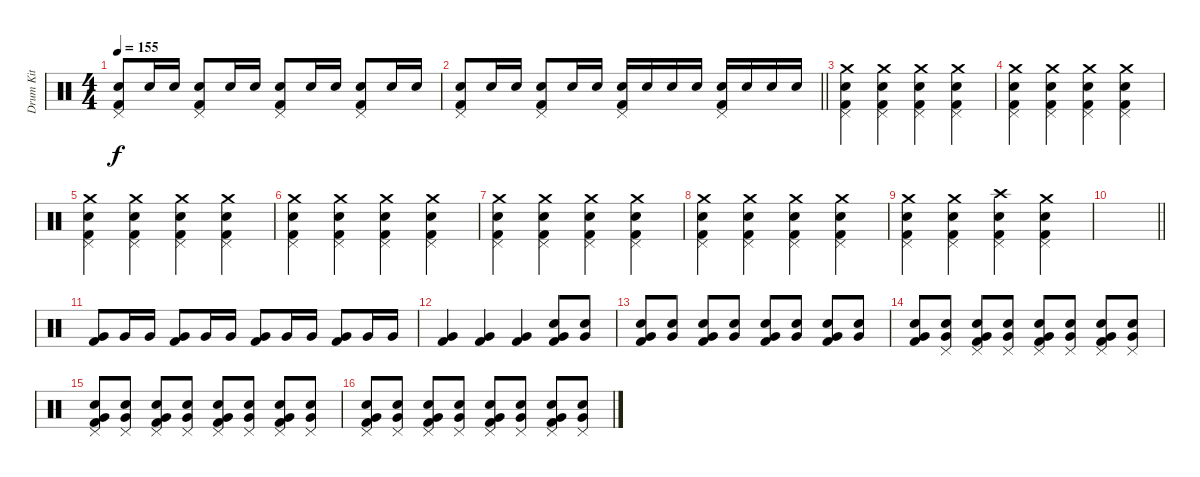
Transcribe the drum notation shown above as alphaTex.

\track ("Drum Kit" "Drum Kit") {instrument percussion}
\staff {score}
\articulation defaults
\ts (4 4)
\tempo 155
\clef neutral
\ks c
("Pedal Hi-Hat (hit)" "Snare (hit) 2" "Kick (hit) 2").8{dy f} "Snare (hit) 2".16 "Snare (hit) 2".16 ("Pedal Hi-Hat (hit)" "Snare (hit) 2" "Kick (hit) 2").8 "Snare (hit) 2".16 "Snare (hit) 2".16 ("Pedal Hi-Hat (hit)" "Snare (hit) 2" "Kick (hit) 2").8 "Snare (hit) 2".16 "Snare (hit) 2".16 ("Pedal Hi-Hat (hit)" "Snare (hit) 2" "Kick (hit) 2").8 "Snare (hit) 2".16 "Snare (hit) 2".16 |
\barLineRight lightlight
("Pedal Hi-Hat (hit)" "Snare (hit) 2" "Kick (hit) 2").8{volume 11} "Snare (hit) 2".16 "Snare (hit) 2".16 ("Pedal Hi-Hat (hit)" "Snare (hit) 2" "Kick (hit) 2").8 "Snare (hit) 2".16 "Snare (hit) 2".16 ("Pedal Hi-Hat (hit)" "Snare (hit) 2" "Kick (hit) 2").16 "Snare (hit) 2".16 "Snare (hit) 2".16 "Snare (hit) 2".16 ("Pedal Hi-Hat (hit)" "Snare (hit) 2" "Kick (hit) 2").16 "Snare (hit) 2".16 "Snare (hit) 2".16 "Snare (hit) 2".16 |
("Crash medium (hit)" "Pedal Hi-Hat (hit)" "Snare (hit) 2" "Kick (hit) 2").4{volume 10} ("Crash medium (hit)" "Pedal Hi-Hat (hit)" "Snare (hit) 2" "Kick (hit) 2").4 ("Crash medium (hit)" "Pedal Hi-Hat (hit)" "Snare (hit) 2" "Kick (hit) 2").4 ("Crash medium (hit)" "Pedal Hi-Hat (hit)" "Snare (hit) 2" "Kick (hit) 2").4 |
("Crash medium (hit)" "Pedal Hi-Hat (hit)" "Snare (hit) 2" "Kick (hit) 2").4 ("Crash medium (hit)" "Pedal Hi-Hat (hit)" "Snare (hit) 2" "Kick (hit) 2").4 ("Crash medium (hit)" "Pedal Hi-Hat (hit)" "Snare (hit) 2" "Kick (hit) 2").4 ("Crash medium (hit)" "Pedal Hi-Hat (hit)" "Snare (hit) 2" "Kick (hit) 2").4 |
("Crash medium (hit)" "Pedal Hi-Hat (hit)" "Snare (hit) 2" "Kick (hit) 2").4 ("Crash medium (hit)" "Pedal Hi-Hat (hit)" "Snare (hit) 2" "Kick (hit) 2").4 ("Crash medium (hit)" "Pedal Hi-Hat (hit)" "Snare (hit) 2" "Kick (hit) 2").4 ("Crash medium (hit)" "Pedal Hi-Hat (hit)" "Snare (hit) 2" "Kick (hit) 2").4 |
("Crash medium (hit)" "Pedal Hi-Hat (hit)" "Snare (hit) 2" "Kick (hit) 2").4 ("Crash medium (hit)" "Pedal Hi-Hat (hit)" "Snare (hit) 2" "Kick (hit) 2").4 ("Crash medium (hit)" "Pedal Hi-Hat (hit)" "Snare (hit) 2" "Kick (hit) 2").4 ("Crash medium (hit)" "Pedal Hi-Hat (hit)" "Snare (hit) 2" "Kick (hit) 2").4 |
("Crash medium (hit)" "Pedal Hi-Hat (hit)" "Snare (hit) 2" "Kick (hit) 2").4 ("Crash medium (hit)" "Pedal Hi-Hat (hit)" "Snare (hit) 2" "Kick (hit) 2").4 ("Crash medium (hit)" "Pedal Hi-Hat (hit)" "Snare (hit) 2" "Kick (hit) 2").4 ("Crash medium (hit)" "Pedal Hi-Hat (hit)" "Snare (hit) 2" "Kick (hit) 2").4 |
("Crash medium (hit)" "Pedal Hi-Hat (hit)" "Snare (hit) 2" "Kick (hit) 2").4 ("Crash medium (hit)" "Pedal Hi-Hat (hit)" "Snare (hit) 2" "Kick (hit) 2").4 ("Crash medium (hit)" "Pedal Hi-Hat (hit)" "Snare (hit) 2" "Kick (hit) 2").4 ("Crash medium (hit)" "Pedal Hi-Hat (hit)" "Snare (hit) 2" "Kick (hit) 2").4 |
("Crash medium (hit)" "Pedal Hi-Hat (hit)" "Snare (hit) 2" "Kick (hit) 2").4 ("Crash medium (hit)" "Pedal Hi-Hat (hit)" "Snare (hit) 2" "Kick (hit) 2").4 ("Crash high (hit)" "Pedal Hi-Hat (hit)" "Snare (hit) 2" "Kick (hit) 2").4 ("Crash medium (hit)" "Pedal Hi-Hat (hit)" "Snare (hit) 2" "Kick (hit) 2").4 |
\barLineRight lightlight
|
("Very Low Tom (hit)" "Kick (hit) 2").8{volume 7} "Very Low Tom (hit)".16 "Very Low Tom (hit)".16 ("Very Low Tom (hit)" "Kick (hit) 2").8 "Very Low Tom (hit)".16 "Very Low Tom (hit)".16 ("Very Low Tom (hit)" "Kick (hit) 2").8 "Very Low Tom (hit)".16 "Very Low Tom (hit)".16 ("Very Low Tom (hit)" "Kick (hit) 2").8 "Very Low Tom (hit)".16 "Very Low Tom (hit)".16 |
("Very Low Tom (hit)" "Kick (hit) 2").4 ("Very Low Tom (hit)" "Kick (hit) 2").4 ("Very Low Tom (hit)" "Kick (hit) 2").4 ("Very Low Tom (hit)" "Snare (hit) 2" "Kick (hit) 2").8 ("Very Low Tom (hit)" "Snare (hit) 2").8 |
("Very Low Tom (hit)" "Snare (hit) 2" "Kick (hit) 2").8 ("Very Low Tom (hit)" "Snare (hit) 2").8 ("Very Low Tom (hit)" "Snare (hit) 2" "Kick (hit) 2").8 ("Very Low Tom (hit)" "Snare (hit) 2").8 ("Very Low Tom (hit)" "Snare (hit) 2" "Kick (hit) 2").8 ("Very Low Tom (hit)" "Snare (hit) 2").8 ("Very Low Tom (hit)" "Snare (hit) 2" "Kick (hit) 2").8 ("Very Low Tom (hit)" "Snare (hit) 2").8 |
("Very Low Tom (hit)" "Snare (hit) 2" "Kick (hit) 2").8{volume 12} ("Pedal Hi-Hat (hit)" "Very Low Tom (hit)" "Snare (hit) 2").8 ("Pedal Hi-Hat (hit)" "Very Low Tom (hit)" "Snare (hit) 2" "Kick (hit) 2").8 ("Pedal Hi-Hat (hit)" "Very Low Tom (hit)" "Snare (hit) 2").8 ("Pedal Hi-Hat (hit)" "Very Low Tom (hit)" "Snare (hit) 2" "Kick (hit) 2").8 ("Pedal Hi-Hat (hit)" "Very Low Tom (hit)" "Snare (hit) 2").8 ("Pedal Hi-Hat (hit)" "Very Low Tom (hit)" "Snare (hit) 2" "Kick (hit) 2").8 ("Pedal Hi-Hat (hit)" "Very Low Tom (hit)" "Snare (hit) 2").8 |
("Pedal Hi-Hat (hit)" "Very Low Tom (hit)" "Snare (hit) 2" "Kick (hit) 2").8 ("Pedal Hi-Hat (hit)" "Very Low Tom (hit)" "Snare (hit) 2").8 ("Pedal Hi-Hat (hit)" "Very Low Tom (hit)" "Snare (hit) 2" "Kick (hit) 2").8 ("Pedal Hi-Hat (hit)" "Very Low Tom (hit)" "Snare (hit) 2").8 ("Pedal Hi-Hat (hit)" "Very Low Tom (hit)" "Snare (hit) 2" "Kick (hit) 2").8 ("Pedal Hi-Hat (hit)" "Very Low Tom (hit)" "Snare (hit) 2").8 ("Pedal Hi-Hat (hit)" "Very Low Tom (hit)" "Snare (hit) 2" "Kick (hit) 2").8 ("Pedal Hi-Hat (hit)" "Very Low Tom (hit)" "Snare (hit) 2").8 |
("Pedal Hi-Hat (hit)" "Very Low Tom (hit)" "Snare (hit) 2" "Kick (hit) 2").8 ("Pedal Hi-Hat (hit)" "Very Low Tom (hit)" "Snare (hit) 2").8 ("Pedal Hi-Hat (hit)" "Very Low Tom (hit)" "Snare (hit) 2" "Kick (hit) 2").8 ("Pedal Hi-Hat (hit)" "Very Low Tom (hit)" "Snare (hit) 2").8 ("Pedal Hi-Hat (hit)" "Very Low Tom (hit)" "Snare (hit) 2" "Kick (hit) 2").8 ("Pedal Hi-Hat (hit)" "Very Low Tom (hit)" "Snare (hit) 2").8 ("Pedal Hi-Hat (hit)" "Very Low Tom (hit)" "Snare (hit) 2" "Kick (hit) 2").8 ("Pedal Hi-Hat (hit)" "Very Low Tom (hit)" "Snare (hit) 2").8
